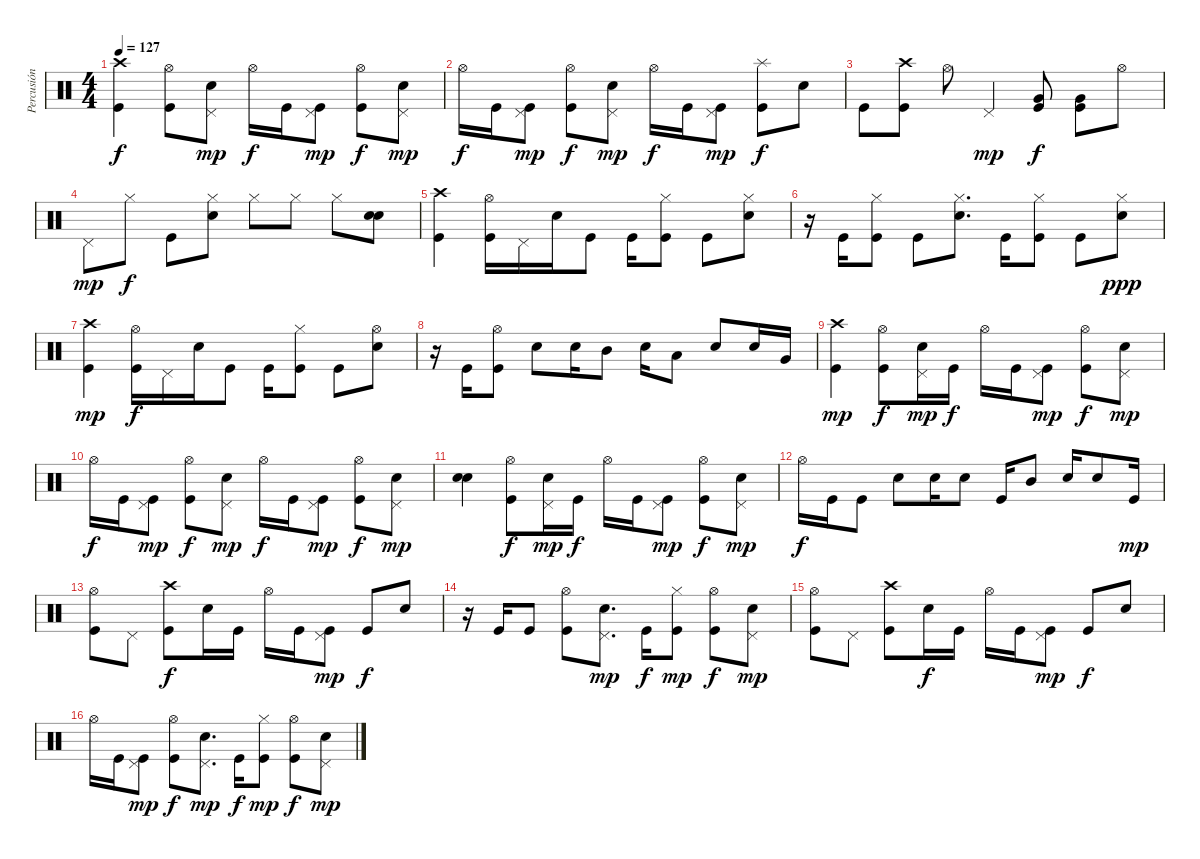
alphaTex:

\track ("Percusión" "Percusión") {instrument percussion}
\staff {score}
\articulation defaults
\ts (4 4)
\tempo 127
\clef neutral
\ks c
("Kick (hit)" "Crash high (hit)").4{dy f} ("Kick (hit)" "Hi-Hat (open)").8 ("Snare (hit) 2" "Pedal Hi-Hat (hit)").8{dy mp} "Hi-Hat (open)".16{dy f} "Kick (hit)".16 ("Kick (hit)" "Pedal Hi-Hat (hit)").8{dy mp} ("Kick (hit)" "Hi-Hat (open)").8{dy f} ("Snare (hit) 2" "Pedal Hi-Hat (hit)").8{dy mp} |
"Hi-Hat (open)".16{dy f} "Kick (hit)".16 ("Kick (hit)" "Pedal Hi-Hat (hit)").8{dy mp} ("Kick (hit)" "Hi-Hat (open)").8{dy f} ("Snare (hit) 2" "Pedal Hi-Hat (hit)").8{dy mp} "Hi-Hat (open)".16{dy f} "Kick (hit)".16 ("Kick (hit)" "Pedal Hi-Hat (hit)").8{dy mp} ("Kick (hit)" "Splash (hit)").8{dy f} "Snare (hit) 2".8 |
"Kick (hit)".8 ("Kick (hit)" "Crash high (hit)").8 "Hi-Hat (open)".8 "Pedal Hi-Hat (hit)".4{dy mp} ("Kick (hit)" "Very Low Tom (hit)").8{dy f} ("Kick (hit)" "Very Low Tom (hit)").8 "Hi-Hat (open)".8 |
"Pedal Hi-Hat (hit)".8{dy mp} "Hi-Hat (closed)".8{dy f} "Kick (hit)".8 ("Snare (hit) 2" "Hi-Hat (closed)").8 "Hi-Hat (closed)".8 "Hi-Hat (closed)".8 "Hi-Hat (closed)".8 ("Snare (hit) 2" "Snare (hit) 2").8 |
("Kick (hit)" "Crash high (hit)").4 ("Kick (hit)" "Hi-Hat (open)").16 "Pedal Hi-Hat (hit)".16 "Snare (hit) 2".16 "Kick (hit)".8 "Kick (hit)".16 ("Kick (hit)" "Hi-Hat (closed)").8 "Kick (hit)".8 ("Snare (hit) 2" "Hi-Hat (closed)").8 |
r.16 "Kick (hit)".16 ("Kick (hit)" "Hi-Hat (closed)").8 "Kick (hit)".8 ("Snare (hit) 2" "Hi-Hat (closed)").8{d} "Kick (hit)".16 ("Kick (hit)" "Hi-Hat (closed)").8 "Kick (hit)".8 ("Snare (hit) 2" "Hi-Hat (closed)").8{dy ppp} |
("Kick (hit)" "Crash high (hit)").4{dy mp} ("Kick (hit)" "Hi-Hat (open)").16{dy f} "Pedal Hi-Hat (hit)".16 "Snare (hit) 2".16 "Kick (hit)".8 "Kick (hit)".16 ("Kick (hit)" "Hi-Hat (closed)").8 "Kick (hit)".8 ("Snare (hit) 2" "Hi-Hat (open)").8 |
r.16 "Kick (hit)".16 ("Kick (hit)" "Hi-Hat (open)").8 "Snare (hit) 2".8 "Snare (hit) 2".16 "Mid Tom (hit)".8 "Snare (hit) 2".16 "Low Tom (hit)".8 "Snare (hit) 2".8 "Snare (hit) 2".16 "Very Low Tom (hit)".16 |
("Kick (hit)" "Crash high (hit)").4{dy mp} ("Kick (hit)" "Hi-Hat (open)").8{dy f} ("Snare (hit) 2" "Pedal Hi-Hat (hit)").16{dy mp} "Kick (hit)".16{dy f} "Hi-Hat (open)".16 "Kick (hit)".16 ("Kick (hit)" "Pedal Hi-Hat (hit)").8{dy mp} ("Kick (hit)" "Hi-Hat (open)").8{dy f} ("Snare (hit) 2" "Pedal Hi-Hat (hit)").8{dy mp} |
"Hi-Hat (open)".16{dy f} "Kick (hit)".16 ("Kick (hit)" "Pedal Hi-Hat (hit)").8{dy mp} ("Kick (hit)" "Hi-Hat (open)").8{dy f} ("Snare (hit) 2" "Pedal Hi-Hat (hit)").8{dy mp} "Hi-Hat (open)".16{dy f} "Kick (hit)".16 ("Kick (hit)" "Pedal Hi-Hat (hit)").8{dy mp} ("Kick (hit)" "Hi-Hat (open)").8{dy f} ("Snare (hit) 2" "Pedal Hi-Hat (hit)").8{dy mp} |
("Snare (hit) 2" "Snare (hit) 2").4 ("Kick (hit)" "Hi-Hat (open)").8{dy f} ("Snare (hit) 2" "Pedal Hi-Hat (hit)").16{dy mp} "Kick (hit)".16{dy f} "Hi-Hat (open)".16 "Kick (hit)".16 ("Kick (hit)" "Pedal Hi-Hat (hit)").8{dy mp} ("Kick (hit)" "Hi-Hat (open)").8{dy f} ("Snare (hit) 2" "Pedal Hi-Hat (hit)").8{dy mp} |
"Hi-Hat (open)".16{dy f} "Kick (hit)".16 "Kick (hit)".8 "Snare (hit) 2".8 "Snare (hit) 2".16 "Snare (hit) 2".8 "Kick (hit)".16 "Mid Tom (hit)".8 "Snare (hit) 2".16 "Snare (hit) 2".8 "Kick (hit)".16{dy mp} |
("Kick (hit)" "Hi-Hat (open)").8 "Pedal Hi-Hat (hit)".8 ("Kick (hit)" "Crash high (hit)").8{dy f} "Snare (hit) 2".16 "Kick (hit)".16 "Hi-Hat (open)".16 "Kick (hit)".16 ("Kick (hit)" "Pedal Hi-Hat (hit)").8{dy mp} "Kick (hit)".8{dy f} "Snare (hit) 2".8 |
r.16 "Kick (hit)".16 "Kick (hit)".8 ("Kick (hit)" "Hi-Hat (open)").8 ("Snare (hit) 2" "Pedal Hi-Hat (hit)").8{d dy mp} "Kick (hit)".16{dy f} ("Kick (hit)" "Hi-Hat (closed)").8{dy mp} ("Kick (hit)" "Hi-Hat (open)").8{dy f} ("Snare (hit) 2" "Pedal Hi-Hat (hit)").8{dy mp} |
("Kick (hit)" "Hi-Hat (open)").8 "Pedal Hi-Hat (hit)".8 ("Kick (hit)" "Crash high (hit)").8 "Snare (hit) 2".16{dy f} "Kick (hit)".16 "Hi-Hat (open)".16 "Kick (hit)".16 ("Kick (hit)" "Pedal Hi-Hat (hit)").8{dy mp} "Kick (hit)".8{dy f} "Snare (hit) 2".8 |
"Hi-Hat (open)".16 "Kick (hit)".16 ("Kick (hit)" "Pedal Hi-Hat (hit)").8{dy mp} ("Kick (hit)" "Hi-Hat (open)").8{dy f} ("Snare (hit) 2" "Pedal Hi-Hat (hit)").8{d dy mp} "Kick (hit)".16{dy f} ("Kick (hit)" "Hi-Hat (closed)").8{dy mp} ("Kick (hit)" "Hi-Hat (open)").8{dy f} ("Snare (hit) 2" "Pedal Hi-Hat (hit)").8{dy mp}
